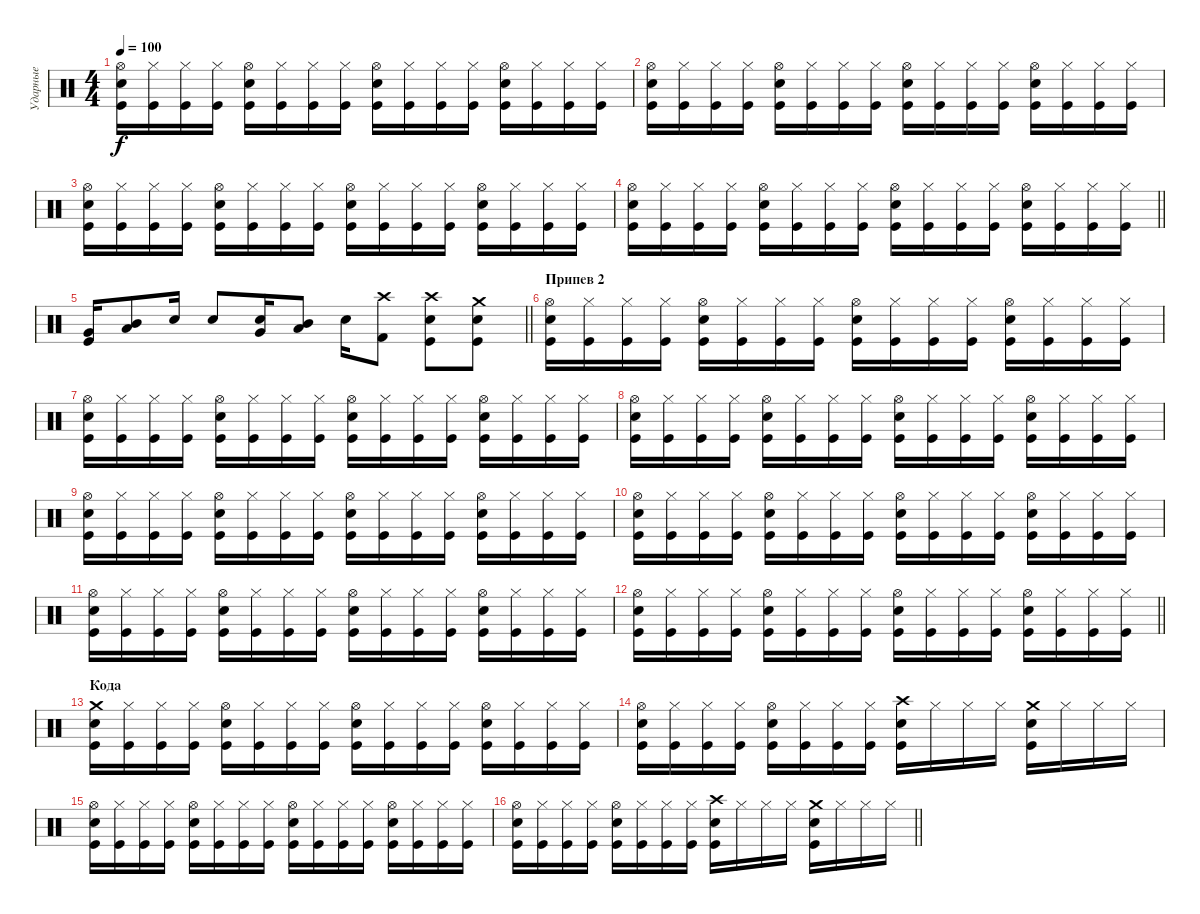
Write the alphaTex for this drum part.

\track ("Ударные" "Ударные") {instrument percussion}
\staff {score}
\articulation defaults
\ts (4 4)
\tempo 100
\clef neutral
\ks c
("Kick (hit)" "Snare (hit) 2" "Hi-Hat (open)").16{dy f} ("Kick (hit)" "Hi-Hat (closed)").16 ("Kick (hit)" "Hi-Hat (closed)").16 ("Kick (hit)" "Hi-Hat (closed)").16 ("Kick (hit)" "Snare (hit) 2" "Hi-Hat (open)").16 ("Kick (hit)" "Hi-Hat (closed)").16 ("Kick (hit)" "Hi-Hat (closed)").16 ("Kick (hit)" "Hi-Hat (closed)").16 ("Kick (hit)" "Snare (hit) 2" "Hi-Hat (open)").16 ("Kick (hit)" "Hi-Hat (closed)").16 ("Kick (hit)" "Hi-Hat (closed)").16 ("Kick (hit)" "Hi-Hat (closed)").16 ("Kick (hit)" "Snare (hit) 2" "Hi-Hat (open)").16 ("Kick (hit)" "Hi-Hat (closed)").16 ("Kick (hit)" "Hi-Hat (closed)").16 ("Kick (hit)" "Hi-Hat (closed)").16 |
("Kick (hit)" "Snare (hit) 2" "Hi-Hat (open)").16 ("Kick (hit)" "Hi-Hat (closed)").16 ("Kick (hit)" "Hi-Hat (closed)").16 ("Kick (hit)" "Hi-Hat (closed)").16 ("Kick (hit)" "Snare (hit) 2" "Hi-Hat (open)").16 ("Kick (hit)" "Hi-Hat (closed)").16 ("Kick (hit)" "Hi-Hat (closed)").16 ("Kick (hit)" "Hi-Hat (closed)").16 ("Kick (hit)" "Snare (hit) 2" "Hi-Hat (open)").16 ("Kick (hit)" "Hi-Hat (closed)").16 ("Kick (hit)" "Hi-Hat (closed)").16 ("Kick (hit)" "Hi-Hat (closed)").16 ("Kick (hit)" "Snare (hit) 2" "Hi-Hat (open)").16 ("Kick (hit)" "Hi-Hat (closed)").16 ("Kick (hit)" "Hi-Hat (closed)").16 ("Kick (hit)" "Hi-Hat (closed)").16 |
("Kick (hit)" "Snare (hit) 2" "Hi-Hat (open)").16 ("Kick (hit)" "Hi-Hat (closed)").16 ("Kick (hit)" "Hi-Hat (closed)").16 ("Kick (hit)" "Hi-Hat (closed)").16 ("Kick (hit)" "Snare (hit) 2" "Hi-Hat (open)").16 ("Kick (hit)" "Hi-Hat (closed)").16 ("Kick (hit)" "Hi-Hat (closed)").16 ("Kick (hit)" "Hi-Hat (closed)").16 ("Kick (hit)" "Snare (hit) 2" "Hi-Hat (open)").16 ("Kick (hit)" "Hi-Hat (closed)").16 ("Kick (hit)" "Hi-Hat (closed)").16 ("Kick (hit)" "Hi-Hat (closed)").16 ("Kick (hit)" "Snare (hit) 2" "Hi-Hat (open)").16 ("Kick (hit)" "Hi-Hat (closed)").16 ("Kick (hit)" "Hi-Hat (closed)").16 ("Kick (hit)" "Hi-Hat (closed)").16 |
\barLineRight lightlight
("Kick (hit)" "Snare (hit) 2" "Hi-Hat (open)").16 ("Kick (hit)" "Hi-Hat (closed)").16 ("Kick (hit)" "Hi-Hat (closed)").16 ("Kick (hit)" "Hi-Hat (closed)").16 ("Kick (hit)" "Snare (hit) 2" "Hi-Hat (open)").16 ("Kick (hit)" "Hi-Hat (closed)").16 ("Kick (hit)" "Hi-Hat (closed)").16 ("Kick (hit)" "Hi-Hat (closed)").16 ("Kick (hit)" "Snare (hit) 2" "Hi-Hat (open)").16 ("Kick (hit)" "Hi-Hat (closed)").16 ("Kick (hit)" "Hi-Hat (closed)").16 ("Kick (hit)" "Hi-Hat (closed)").16 ("Kick (hit)" "Snare (hit) 2" "Hi-Hat (open)").16 ("Kick (hit)" "Hi-Hat (closed)").16 ("Kick (hit)" "Hi-Hat (closed)").16 ("Kick (hit)" "Hi-Hat (closed)").16 |
\barLineRight lightlight
("Very Low Tom (hit)" "Kick (hit)").16 ("Mid Tom (hit)" "Low Tom (hit)").8 "Electric Snare (hit)".16 "Electric Snare (hit)".8 ("Very Low Tom (hit)" "Electric Snare (hit)").16 ("Mid Tom (hit)" "Low Tom (hit)").8 "Electric Snare (hit)".16 ("Crash high (hit)" "Kick (hit) 2").8 ("Crash high (hit)" "Kick (hit)" "Snare (hit) 2").8 ("Crash medium (hit)" "Kick (hit)" "Snare (hit) 2").8 |
\section ("" "Припев 2")
("Kick (hit)" "Snare (hit) 2" "Hi-Hat (open)").16 ("Kick (hit)" "Hi-Hat (closed)").16 ("Kick (hit)" "Hi-Hat (closed)").16 ("Kick (hit)" "Hi-Hat (closed)").16 ("Kick (hit)" "Snare (hit) 2" "Hi-Hat (open)").16 ("Kick (hit)" "Hi-Hat (closed)").16 ("Kick (hit)" "Hi-Hat (closed)").16 ("Kick (hit)" "Hi-Hat (closed)").16 ("Kick (hit)" "Snare (hit) 2" "Hi-Hat (open)").16 ("Kick (hit)" "Hi-Hat (closed)").16 ("Kick (hit)" "Hi-Hat (closed)").16 ("Kick (hit)" "Hi-Hat (closed)").16 ("Kick (hit)" "Snare (hit) 2" "Hi-Hat (open)").16 ("Kick (hit)" "Hi-Hat (closed)").16 ("Kick (hit)" "Hi-Hat (closed)").16 ("Kick (hit)" "Hi-Hat (closed)").16 |
("Kick (hit)" "Snare (hit) 2" "Hi-Hat (open)").16 ("Kick (hit)" "Hi-Hat (closed)").16 ("Kick (hit)" "Hi-Hat (closed)").16 ("Kick (hit)" "Hi-Hat (closed)").16 ("Kick (hit)" "Snare (hit) 2" "Hi-Hat (open)").16 ("Kick (hit)" "Hi-Hat (closed)").16 ("Kick (hit)" "Hi-Hat (closed)").16 ("Kick (hit)" "Hi-Hat (closed)").16 ("Kick (hit)" "Snare (hit) 2" "Hi-Hat (open)").16 ("Kick (hit)" "Hi-Hat (closed)").16 ("Kick (hit)" "Hi-Hat (closed)").16 ("Kick (hit)" "Hi-Hat (closed)").16 ("Kick (hit)" "Snare (hit) 2" "Hi-Hat (open)").16 ("Kick (hit)" "Hi-Hat (closed)").16 ("Kick (hit)" "Hi-Hat (closed)").16 ("Kick (hit)" "Hi-Hat (closed)").16 |
("Kick (hit)" "Snare (hit) 2" "Hi-Hat (open)").16 ("Kick (hit)" "Hi-Hat (closed)").16 ("Kick (hit)" "Hi-Hat (closed)").16 ("Kick (hit)" "Hi-Hat (closed)").16 ("Kick (hit)" "Snare (hit) 2" "Hi-Hat (open)").16 ("Kick (hit)" "Hi-Hat (closed)").16 ("Kick (hit)" "Hi-Hat (closed)").16 ("Kick (hit)" "Hi-Hat (closed)").16 ("Kick (hit)" "Snare (hit) 2" "Hi-Hat (open)").16 ("Kick (hit)" "Hi-Hat (closed)").16 ("Kick (hit)" "Hi-Hat (closed)").16 ("Kick (hit)" "Hi-Hat (closed)").16 ("Kick (hit)" "Snare (hit) 2" "Hi-Hat (open)").16 ("Kick (hit)" "Hi-Hat (closed)").16 ("Kick (hit)" "Hi-Hat (closed)").16 ("Kick (hit)" "Hi-Hat (closed)").16 |
("Kick (hit)" "Snare (hit) 2" "Hi-Hat (open)").16 ("Kick (hit)" "Hi-Hat (closed)").16 ("Kick (hit)" "Hi-Hat (closed)").16 ("Kick (hit)" "Hi-Hat (closed)").16 ("Kick (hit)" "Snare (hit) 2" "Hi-Hat (open)").16 ("Kick (hit)" "Hi-Hat (closed)").16 ("Kick (hit)" "Hi-Hat (closed)").16 ("Kick (hit)" "Hi-Hat (closed)").16 ("Kick (hit)" "Snare (hit) 2" "Hi-Hat (open)").16 ("Kick (hit)" "Hi-Hat (closed)").16 ("Kick (hit)" "Hi-Hat (closed)").16 ("Kick (hit)" "Hi-Hat (closed)").16 ("Kick (hit)" "Snare (hit) 2" "Hi-Hat (open)").16 ("Kick (hit)" "Hi-Hat (closed)").16 ("Kick (hit)" "Hi-Hat (closed)").16 ("Kick (hit)" "Hi-Hat (closed)").16 |
("Kick (hit)" "Snare (hit) 2" "Hi-Hat (open)").16 ("Kick (hit)" "Hi-Hat (closed)").16 ("Kick (hit)" "Hi-Hat (closed)").16 ("Kick (hit)" "Hi-Hat (closed)").16 ("Kick (hit)" "Snare (hit) 2" "Hi-Hat (open)").16 ("Kick (hit)" "Hi-Hat (closed)").16 ("Kick (hit)" "Hi-Hat (closed)").16 ("Kick (hit)" "Hi-Hat (closed)").16 ("Kick (hit)" "Snare (hit) 2" "Hi-Hat (open)").16 ("Kick (hit)" "Hi-Hat (closed)").16 ("Kick (hit)" "Hi-Hat (closed)").16 ("Kick (hit)" "Hi-Hat (closed)").16 ("Kick (hit)" "Snare (hit) 2" "Hi-Hat (open)").16 ("Kick (hit)" "Hi-Hat (closed)").16 ("Kick (hit)" "Hi-Hat (closed)").16 ("Kick (hit)" "Hi-Hat (closed)").16 |
("Kick (hit)" "Snare (hit) 2" "Hi-Hat (open)").16 ("Kick (hit)" "Hi-Hat (closed)").16 ("Kick (hit)" "Hi-Hat (closed)").16 ("Kick (hit)" "Hi-Hat (closed)").16 ("Kick (hit)" "Snare (hit) 2" "Hi-Hat (open)").16 ("Kick (hit)" "Hi-Hat (closed)").16 ("Kick (hit)" "Hi-Hat (closed)").16 ("Kick (hit)" "Hi-Hat (closed)").16 ("Kick (hit)" "Snare (hit) 2" "Hi-Hat (open)").16 ("Kick (hit)" "Hi-Hat (closed)").16 ("Kick (hit)" "Hi-Hat (closed)").16 ("Kick (hit)" "Hi-Hat (closed)").16 ("Kick (hit)" "Snare (hit) 2" "Hi-Hat (open)").16 ("Kick (hit)" "Hi-Hat (closed)").16 ("Kick (hit)" "Hi-Hat (closed)").16 ("Kick (hit)" "Hi-Hat (closed)").16 |
\barLineRight lightlight
("Kick (hit)" "Snare (hit) 2" "Hi-Hat (open)").16 ("Kick (hit)" "Hi-Hat (closed)").16 ("Kick (hit)" "Hi-Hat (closed)").16 ("Kick (hit)" "Hi-Hat (closed)").16 ("Kick (hit)" "Snare (hit) 2" "Hi-Hat (open)").16 ("Kick (hit)" "Hi-Hat (closed)").16 ("Kick (hit)" "Hi-Hat (closed)").16 ("Kick (hit)" "Hi-Hat (closed)").16 ("Kick (hit)" "Snare (hit) 2" "Hi-Hat (open)").16 ("Kick (hit)" "Hi-Hat (closed)").16 ("Kick (hit)" "Hi-Hat (closed)").16 ("Kick (hit)" "Hi-Hat (closed)").16 ("Kick (hit)" "Snare (hit) 2" "Hi-Hat (open)").16 ("Kick (hit)" "Hi-Hat (closed)").16 ("Kick (hit)" "Hi-Hat (closed)").16 ("Kick (hit)" "Hi-Hat (closed)").16 |
\section ("" "Кода")
("Kick (hit)" "Snare (hit) 2" "Crash medium (hit)").16 ("Kick (hit)" "Hi-Hat (closed)").16 ("Kick (hit)" "Hi-Hat (closed)").16 ("Kick (hit)" "Hi-Hat (closed)").16 ("Kick (hit)" "Snare (hit) 2" "Hi-Hat (open)").16 ("Kick (hit)" "Hi-Hat (closed)").16 ("Kick (hit)" "Hi-Hat (closed)").16 ("Kick (hit)" "Hi-Hat (closed)").16 ("Kick (hit)" "Snare (hit) 2" "Hi-Hat (open)").16 ("Kick (hit)" "Hi-Hat (closed)").16 ("Kick (hit)" "Hi-Hat (closed)").16 ("Kick (hit)" "Hi-Hat (closed)").16 ("Kick (hit)" "Snare (hit) 2" "Hi-Hat (open)").16 ("Kick (hit)" "Hi-Hat (closed)").16 ("Kick (hit)" "Hi-Hat (closed)").16 ("Kick (hit)" "Hi-Hat (closed)").16 |
("Kick (hit)" "Snare (hit) 2" "Hi-Hat (open)").16 ("Kick (hit)" "Hi-Hat (closed)").16 ("Kick (hit)" "Hi-Hat (closed)").16 ("Kick (hit)" "Hi-Hat (closed)").16 ("Kick (hit)" "Snare (hit) 2" "Hi-Hat (open)").16 ("Kick (hit)" "Hi-Hat (closed)").16 ("Kick (hit)" "Hi-Hat (closed)").16 ("Kick (hit)" "Hi-Hat (closed)").16 ("Crash high (hit)" "Kick (hit)" "Snare (hit) 2").16 "Hi-Hat (closed)".16 "Hi-Hat (closed)".16 "Hi-Hat (closed)".16 ("Crash medium (hit)" "Kick (hit)" "Snare (hit) 2").16 "Hi-Hat (closed)".16 "Hi-Hat (closed)".16 "Hi-Hat (closed)".16 |
("Kick (hit)" "Snare (hit) 2" "Hi-Hat (open)").16 ("Kick (hit)" "Hi-Hat (closed)").16 ("Kick (hit)" "Hi-Hat (closed)").16 ("Kick (hit)" "Hi-Hat (closed)").16 ("Kick (hit)" "Snare (hit) 2" "Hi-Hat (open)").16 ("Kick (hit)" "Hi-Hat (closed)").16 ("Kick (hit)" "Hi-Hat (closed)").16 ("Kick (hit)" "Hi-Hat (closed)").16 ("Kick (hit)" "Snare (hit) 2" "Hi-Hat (open)").16 ("Kick (hit)" "Hi-Hat (closed)").16 ("Kick (hit)" "Hi-Hat (closed)").16 ("Kick (hit)" "Hi-Hat (closed)").16 ("Kick (hit)" "Snare (hit) 2" "Hi-Hat (open)").16 ("Kick (hit)" "Hi-Hat (closed)").16 ("Kick (hit)" "Hi-Hat (closed)").16 ("Kick (hit)" "Hi-Hat (closed)").16 |
\barLineRight lightlight
("Kick (hit)" "Snare (hit) 2" "Hi-Hat (open)").16 ("Kick (hit)" "Hi-Hat (closed)").16 ("Kick (hit)" "Hi-Hat (closed)").16 ("Kick (hit)" "Hi-Hat (closed)").16 ("Kick (hit)" "Snare (hit) 2" "Hi-Hat (open)").16 ("Kick (hit)" "Hi-Hat (closed)").16 ("Kick (hit)" "Hi-Hat (closed)").16 ("Kick (hit)" "Hi-Hat (closed)").16 ("Crash high (hit)" "Kick (hit)" "Snare (hit) 2").16 "Hi-Hat (closed)".16 "Hi-Hat (closed)".16 "Hi-Hat (closed)".16 ("Crash medium (hit)" "Kick (hit)" "Snare (hit) 2").16 "Hi-Hat (closed)".16 "Hi-Hat (closed)".16 "Hi-Hat (closed)".16
